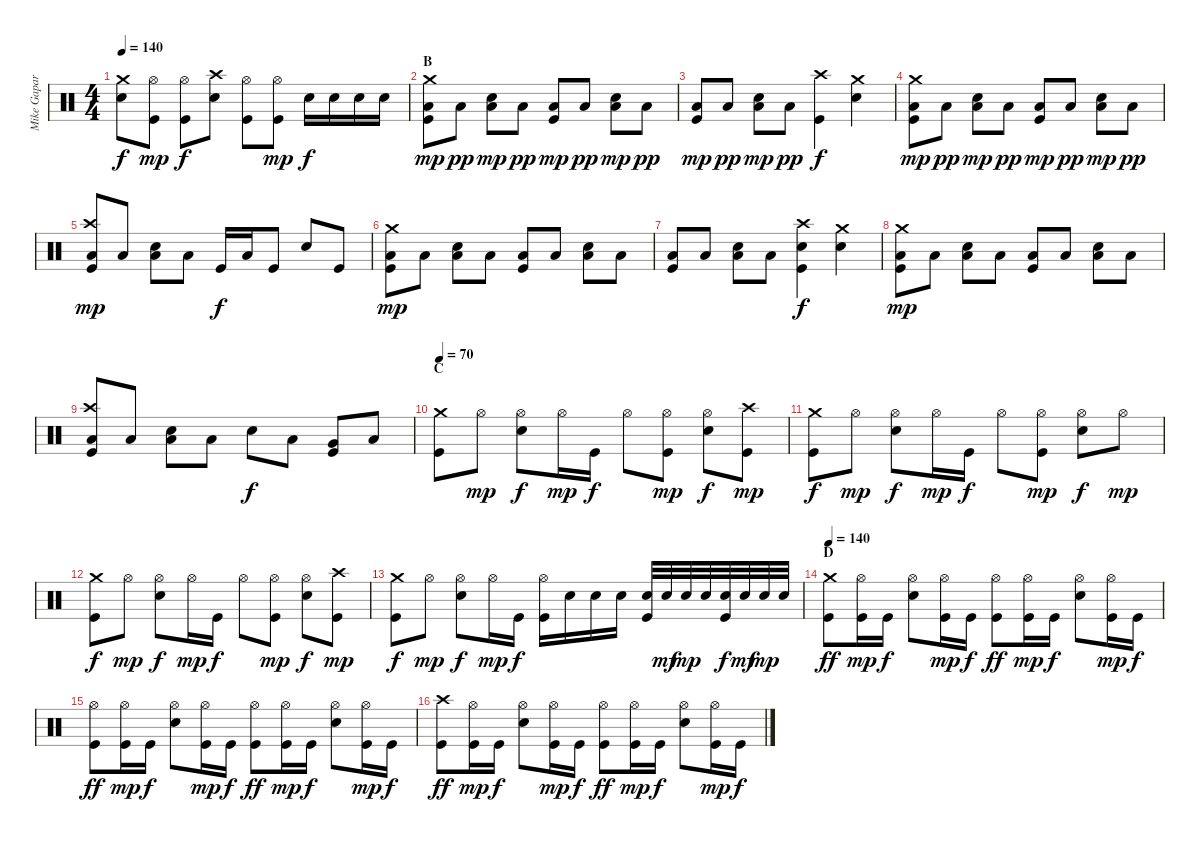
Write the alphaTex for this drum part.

\track ("Mike Gapar" "Mike Gapar") {instrument percussion}
\staff {score}
\articulation defaults
\ts (4 4)
\tempo 140
\clef neutral
\ks c
("Crash medium (hit)" "Electric Snare (hit)").8{dy f} ("Hi-Hat (open)" "Kick (hit)").8{dy mp} ("Hi-Hat (open)" "Kick (hit)").8{dy f} ("Crash high (hit)" "Electric Snare (hit)").8 ("Hi-Hat (open)" "Kick (hit)").8 ("Hi-Hat (open)" "Kick (hit)").8{dy mp} "Electric Snare (hit)".16{dy f} "Electric Snare (hit)".16 "Electric Snare (hit)".16 "Electric Snare (hit)".16 |
\section ("" "B")
("Crash medium (hit)" "Low Floor Tom (hit)" "Kick (hit)").8{dy mp} "Low Floor Tom (hit)".8{dy pp} ("Electric Snare (hit)" "Low Floor Tom (hit)").8{dy mp} "Low Floor Tom (hit)".8{dy pp} ("Low Floor Tom (hit)" "Kick (hit)").8{dy mp} "Low Floor Tom (hit)".8{dy pp} ("Electric Snare (hit)" "Low Floor Tom (hit)").8{dy mp} "Low Floor Tom (hit)".8{dy pp} |
("Low Floor Tom (hit)" "Kick (hit)").8{dy mp} "Low Floor Tom (hit)".8{dy pp} ("Electric Snare (hit)" "Low Floor Tom (hit)").8{dy mp} "Low Floor Tom (hit)".8{dy pp} ("Crash high (hit)" "Kick (hit)").4{dy f} ("Crash medium (hit)" "Electric Snare (hit)").4 |
("Crash medium (hit)" "Low Floor Tom (hit)" "Kick (hit)").8{dy mp} "Low Floor Tom (hit)".8{dy pp} ("Electric Snare (hit)" "Low Floor Tom (hit)").8{dy mp} "Low Floor Tom (hit)".8{dy pp} ("Low Floor Tom (hit)" "Kick (hit)").8{dy mp} "Low Floor Tom (hit)".8{dy pp} ("Electric Snare (hit)" "Low Floor Tom (hit)").8{dy mp} "Low Floor Tom (hit)".8{dy pp} |
("Crash high (hit)" "Low Floor Tom (hit)" "Kick (hit)").8{dy mp} "Low Floor Tom (hit)".8 ("Electric Snare (hit)" "Low Floor Tom (hit)").8 "Low Floor Tom (hit)".8 "Kick (hit)".16{dy f} "Low Tom (hit)".16 "Kick (hit)".8 "Electric Snare (hit)".8 "Kick (hit)".8 |
("Crash medium (hit)" "Low Floor Tom (hit)" "Kick (hit)").8{dy mp} "Low Floor Tom (hit)".8 ("Electric Snare (hit)" "Low Floor Tom (hit)").8 "Low Floor Tom (hit)".8 ("Low Floor Tom (hit)" "Kick (hit)").8 "Low Floor Tom (hit)".8 ("Electric Snare (hit)" "Low Floor Tom (hit)").8 "Low Floor Tom (hit)".8 |
("Low Floor Tom (hit)" "Kick (hit)").8 "Low Floor Tom (hit)".8 ("Electric Snare (hit)" "Low Floor Tom (hit)").8 "Low Floor Tom (hit)".8 ("Crash high (hit)" "Electric Snare (hit)" "Kick (hit)").4{dy f} ("Crash medium (hit)" "Electric Snare (hit)").4 |
("Crash medium (hit)" "Low Floor Tom (hit)" "Kick (hit)").8{dy mp} "Low Floor Tom (hit)".8 ("Electric Snare (hit)" "Low Floor Tom (hit)").8 "Low Floor Tom (hit)".8 ("Low Floor Tom (hit)" "Kick (hit)").8 "Low Floor Tom (hit)".8 ("Electric Snare (hit)" "Low Floor Tom (hit)").8 "Low Floor Tom (hit)".8 |
("Crash high (hit)" "Low Floor Tom (hit)" "Kick (hit)").8 "Low Floor Tom (hit)".8 ("Electric Snare (hit)" "Low Floor Tom (hit)").8 "Low Floor Tom (hit)".8 "Electric Snare (hit)".8{dy f} "Low Tom (hit)".8 ("Very Low Tom (hit)" "Kick (hit)").8 "Low Floor Tom (hit)".8 |
\section ("" "C")
\tempo 70
("Crash medium (hit)" "Kick (hit)").8 "Hi-Hat (open)".8{dy mp} ("Hi-Hat (open)" "Electric Snare (hit)").8{dy f} "Hi-Hat (open)".16{dy mp} "Kick (hit)".16{dy f} "Hi-Hat (open)".8 ("Hi-Hat (open)" "Kick (hit)").8{dy mp} ("Hi-Hat (open)" "Electric Snare (hit)").8{dy f} ("Crash high (hit)" "Kick (hit)").8{dy mp} |
("Crash medium (hit)" "Kick (hit)").8{dy f} "Hi-Hat (open)".8{dy mp} ("Hi-Hat (open)" "Electric Snare (hit)").8{dy f} "Hi-Hat (open)".16{dy mp} "Kick (hit)".16{dy f} "Hi-Hat (open)".8 ("Hi-Hat (open)" "Kick (hit)").8{dy mp} ("Hi-Hat (open)" "Electric Snare (hit)").8{dy f} "Hi-Hat (open)".8{dy mp} |
("Crash medium (hit)" "Kick (hit)").8{dy f} "Hi-Hat (open)".8{dy mp} ("Hi-Hat (open)" "Electric Snare (hit)").8{dy f} "Hi-Hat (open)".16{dy mp} "Kick (hit)".16{dy f} "Hi-Hat (open)".8 ("Hi-Hat (open)" "Kick (hit)").8{dy mp} ("Hi-Hat (open)" "Electric Snare (hit)").8{dy f} ("Crash high (hit)" "Kick (hit)").8{dy mp} |
("Crash medium (hit)" "Kick (hit)").8{dy f} "Hi-Hat (open)".8{dy mp} ("Hi-Hat (open)" "Electric Snare (hit)").8{dy f} "Hi-Hat (open)".16{dy mp} "Kick (hit)".16{dy f} ("Hi-Hat (open)" "Kick (hit)").16 "Electric Snare (hit)".16 "Electric Snare (hit)".16 "Electric Snare (hit)".16 ("Electric Snare (hit)" "Kick (hit)").32 "Electric Snare (hit)".32{dy mf} "Electric Snare (hit)".32{dy mp} "Electric Snare (hit)".32 ("Electric Snare (hit)" "Kick (hit)").32{dy f} "Electric Snare (hit)".32{dy mf} "Electric Snare (hit)".32{dy mp} "Electric Snare (hit)".32 |
\section ("" "D")
\tempo 140
("Crash medium (hit)" "Kick (hit)").8{dy ff} ("Hi-Hat (open)" "Kick (hit)").16{dy mp} "Kick (hit)".16{dy f} ("Hi-Hat (open)" "Electric Snare (hit)").8 ("Hi-Hat (open)" "Kick (hit)").16{dy mp} "Kick (hit)".16{dy f} ("Hi-Hat (open)" "Kick (hit)").8{dy ff} ("Hi-Hat (open)" "Kick (hit)").16{dy mp} "Kick (hit)".16{dy f} ("Hi-Hat (open)" "Electric Snare (hit)").8 ("Hi-Hat (open)" "Kick (hit)").16{dy mp} "Kick (hit)".16{dy f} |
("Hi-Hat (open)" "Kick (hit)").8{dy ff} ("Hi-Hat (open)" "Kick (hit)").16{dy mp} "Kick (hit)".16{dy f} ("Hi-Hat (open)" "Electric Snare (hit)").8 ("Hi-Hat (open)" "Kick (hit)").16{dy mp} "Kick (hit)".16{dy f} ("Hi-Hat (open)" "Kick (hit)").8{dy ff} ("Hi-Hat (open)" "Kick (hit)").16{dy mp} "Kick (hit)".16{dy f} ("Hi-Hat (open)" "Electric Snare (hit)").8 ("Hi-Hat (open)" "Kick (hit)").16{dy mp} "Kick (hit)".16{dy f} |
("Crash high (hit)" "Kick (hit)").8{dy ff} ("Hi-Hat (open)" "Kick (hit)").16{dy mp} "Kick (hit)".16{dy f} ("Hi-Hat (open)" "Electric Snare (hit)").8 ("Hi-Hat (open)" "Kick (hit)").16{dy mp} "Kick (hit)".16{dy f} ("Hi-Hat (open)" "Kick (hit)").8{dy ff} ("Hi-Hat (open)" "Kick (hit)").16{dy mp} "Kick (hit)".16{dy f} ("Hi-Hat (open)" "Electric Snare (hit)").8 ("Hi-Hat (open)" "Kick (hit)").16{dy mp} "Kick (hit)".16{dy f}
